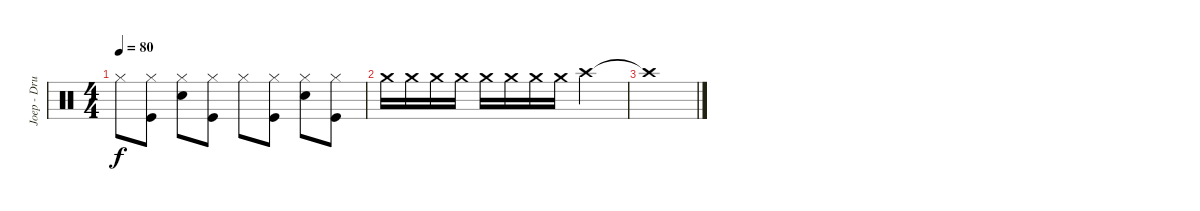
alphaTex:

\track ("Joep - Drums" "Joep - Dru") {instrument percussion}
\staff {score}
\articulation defaults
\ts (4 4)
\tempo 80
\clef neutral
\ks c "Hi-Hat (closed)".8{dy f}
("Hi-Hat (closed)" "Kick (hit)").8 ("Hi-Hat (closed)" "Electric Snare (hit)").8 ("Hi-Hat (closed)" "Kick (hit)").8 "Hi-Hat (closed)".8 ("Hi-Hat (closed)" "Kick (hit)").8 ("Hi-Hat (closed)" "Electric Snare (hit)").8 ("Hi-Hat (closed)" "Kick (hit)").8 |
"Crash medium (hit)".16 "Crash medium (hit)".16 "Crash medium (hit)".16 "Crash medium (hit)".16 "Crash medium (hit)".16 "Crash medium (hit)".16 "Crash medium (hit)".16 "Crash medium (hit)".16 "Crash high (hit)".2 |
"Crash high (hit)"{t}.1
